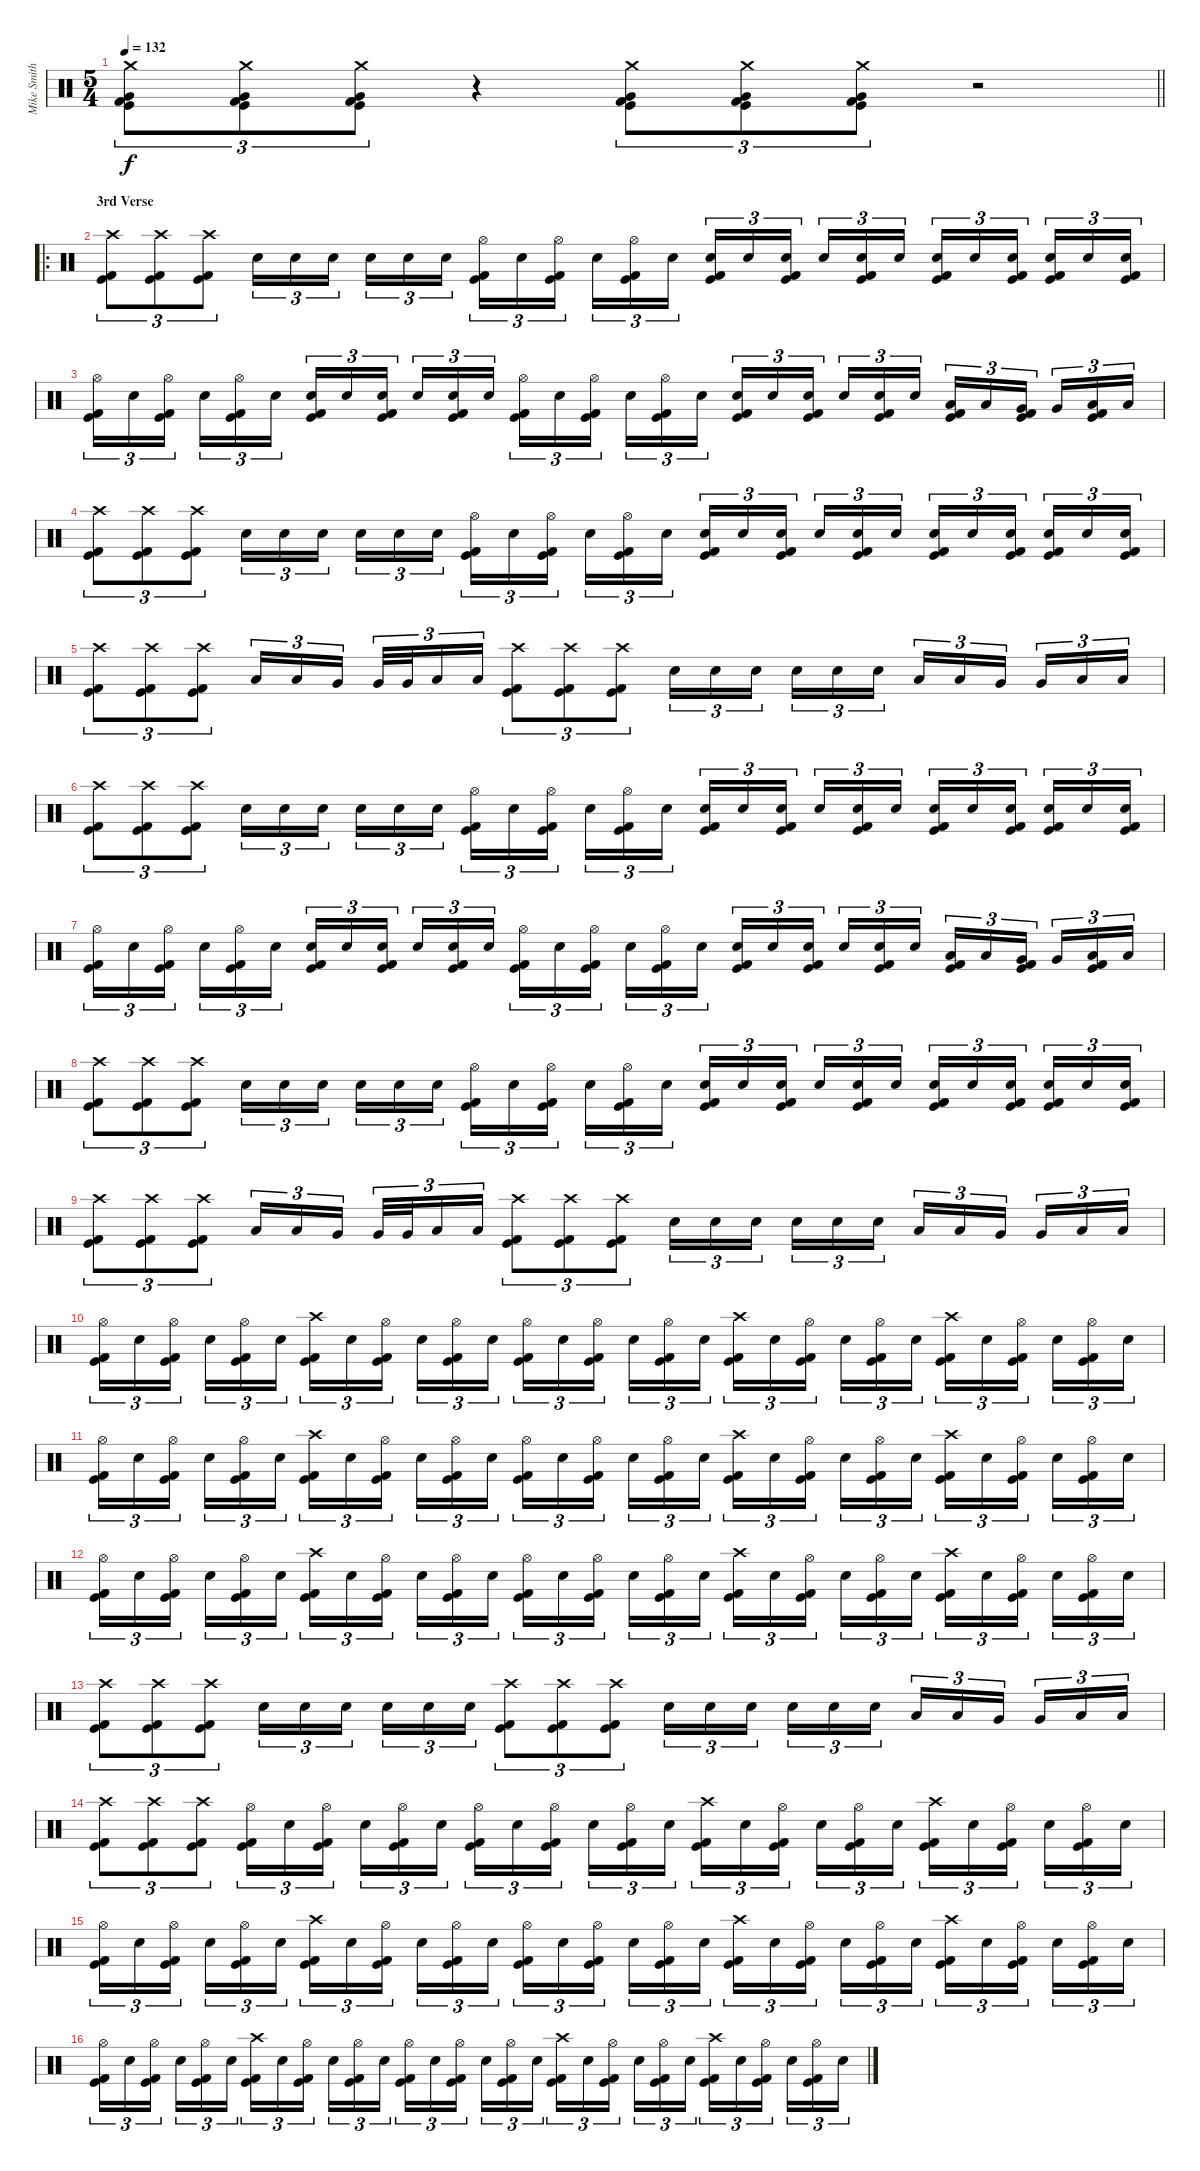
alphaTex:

\track ("Mike Smith" "Mike Smith") {instrument percussion}
\staff {score}
\articulation defaults
\ts (5 4)
\tempo 132
\clef neutral
\barLineRight lightlight
\ks c
("Crash medium (hit)" "Very Low Tom (hit)" "Kick (hit)" "Kick (hit) 2").8{tu (3 2) dy f} ("Crash medium (hit)" "Very Low Tom (hit)" "Kick (hit)" "Kick (hit) 2").8{tu (3 2)} ("Crash medium (hit)" "Very Low Tom (hit)" "Kick (hit)" "Kick (hit) 2").8{tu (3 2)} r.4 ("Crash medium (hit)" "Very Low Tom (hit)" "Kick (hit)" "Kick (hit) 2").8{tu (3 2)} ("Crash medium (hit)" "Very Low Tom (hit)" "Kick (hit)" "Kick (hit) 2").8{tu (3 2)} ("Crash medium (hit)" "Very Low Tom (hit)" "Kick (hit)" "Kick (hit) 2").8{tu (3 2)} r.2 |
\ro
\section ("" "3rd Verse")
("Crash high (hit)" "Kick (hit)" "Kick (hit) 2").8{tu (3 2)} ("Crash high (hit)" "Kick (hit)" "Kick (hit) 2").8{tu (3 2)} ("Crash high (hit)" "Kick (hit)" "Kick (hit) 2").8{tu (3 2)} "Electric Snare (hit)".16{tu (3 2)} "Electric Snare (hit)".16{tu (3 2)} "Electric Snare (hit)".16{tu (3 2) beam splitsecondary} "Electric Snare (hit)".16{tu (3 2)} "Electric Snare (hit)".16{tu (3 2)} "Electric Snare (hit)".16{tu (3 2)} ("Hi-Hat (open)" "Kick (hit)" "Kick (hit) 2").16{tu (3 2)} "Electric Snare (hit)".16{tu (3 2)} ("Hi-Hat (open)" "Kick (hit)" "Kick (hit) 2").16{tu (3 2) beam splitsecondary} "Electric Snare (hit)".16{tu (3 2)} ("Hi-Hat (open)" "Kick (hit)" "Kick (hit) 2").16{tu (3 2)} "Electric Snare (hit)".16{tu (3 2)} ("Electric Snare (hit)" "Kick (hit)" "Kick (hit) 2").16{tu (3 2)} "Electric Snare (hit)".16{tu (3 2)} ("Electric Snare (hit)" "Kick (hit)" "Kick (hit) 2").16{tu (3 2) beam splitsecondary} "Electric Snare (hit)".16{tu (3 2)} ("Electric Snare (hit)" "Kick (hit)" "Kick (hit) 2").16{tu (3 2)} "Electric Snare (hit)".16{tu (3 2)} ("Electric Snare (hit)" "Kick (hit)" "Kick (hit) 2").16{tu (3 2)} "Electric Snare (hit)".16{tu (3 2)} ("Electric Snare (hit)" "Kick (hit)" "Kick (hit) 2").16{tu (3 2) beam splitsecondary} ("Electric Snare (hit)" "Kick (hit)" "Kick (hit) 2").16{tu (3 2)} "Electric Snare (hit)".16{tu (3 2)} ("Electric Snare (hit)" "Kick (hit)" "Kick (hit) 2").16{tu (3 2)} |
("Hi-Hat (open)" "Kick (hit)" "Kick (hit) 2").16{tu (3 2)} "Electric Snare (hit)".16{tu (3 2)} ("Hi-Hat (open)" "Kick (hit)" "Kick (hit) 2").16{tu (3 2) beam splitsecondary} "Electric Snare (hit)".16{tu (3 2)} ("Hi-Hat (open)" "Kick (hit)" "Kick (hit) 2").16{tu (3 2)} "Electric Snare (hit)".16{tu (3 2)} ("Electric Snare (hit)" "Kick (hit)" "Kick (hit) 2").16{tu (3 2)} "Electric Snare (hit)".16{tu (3 2)} ("Electric Snare (hit)" "Kick (hit)" "Kick (hit) 2").16{tu (3 2) beam splitsecondary} "Electric Snare (hit)".16{tu (3 2)} ("Electric Snare (hit)" "Kick (hit)" "Kick (hit) 2").16{tu (3 2)} "Electric Snare (hit)".16{tu (3 2)} ("Hi-Hat (open)" "Kick (hit)" "Kick (hit) 2").16{tu (3 2)} "Electric Snare (hit)".16{tu (3 2)} ("Hi-Hat (open)" "Kick (hit)" "Kick (hit) 2").16{tu (3 2) beam splitsecondary} "Electric Snare (hit)".16{tu (3 2)} ("Hi-Hat (open)" "Kick (hit)" "Kick (hit) 2").16{tu (3 2)} "Electric Snare (hit)".16{tu (3 2)} ("Electric Snare (hit)" "Kick (hit)" "Kick (hit) 2").16{tu (3 2)} "Electric Snare (hit)".16{tu (3 2)} ("Electric Snare (hit)" "Kick (hit)" "Kick (hit) 2").16{tu (3 2) beam splitsecondary} "Electric Snare (hit)".16{tu (3 2)} ("Electric Snare (hit)" "Kick (hit)" "Kick (hit) 2").16{tu (3 2)} "Electric Snare (hit)".16{tu (3 2)} ("Low Tom (hit)" "Kick (hit)" "Kick (hit) 2").16{tu (3 2)} "Low Tom (hit)".16{tu (3 2)} ("Very Low Tom (hit)" "Kick (hit)" "Kick (hit) 2").16{tu (3 2) beam splitsecondary} "Very Low Tom (hit)".16{tu (3 2)} ("Low Floor Tom (hit)" "Kick (hit)" "Kick (hit) 2").16{tu (3 2)} "Low Floor Tom (hit)".16{tu (3 2)} |
("Crash high (hit)" "Kick (hit)" "Kick (hit) 2").8{tu (3 2)} ("Crash high (hit)" "Kick (hit)" "Kick (hit) 2").8{tu (3 2)} ("Crash high (hit)" "Kick (hit)" "Kick (hit) 2").8{tu (3 2)} "Electric Snare (hit)".16{tu (3 2)} "Electric Snare (hit)".16{tu (3 2)} "Electric Snare (hit)".16{tu (3 2) beam splitsecondary} "Electric Snare (hit)".16{tu (3 2)} "Electric Snare (hit)".16{tu (3 2)} "Electric Snare (hit)".16{tu (3 2)} ("Hi-Hat (open)" "Kick (hit)" "Kick (hit) 2").16{tu (3 2)} "Electric Snare (hit)".16{tu (3 2)} ("Hi-Hat (open)" "Kick (hit)" "Kick (hit) 2").16{tu (3 2) beam splitsecondary} "Electric Snare (hit)".16{tu (3 2)} ("Hi-Hat (open)" "Kick (hit)" "Kick (hit) 2").16{tu (3 2)} "Electric Snare (hit)".16{tu (3 2)} ("Electric Snare (hit)" "Kick (hit)" "Kick (hit) 2").16{tu (3 2)} "Electric Snare (hit)".16{tu (3 2)} ("Electric Snare (hit)" "Kick (hit)" "Kick (hit) 2").16{tu (3 2) beam splitsecondary} "Electric Snare (hit)".16{tu (3 2)} ("Electric Snare (hit)" "Kick (hit)" "Kick (hit) 2").16{tu (3 2)} "Electric Snare (hit)".16{tu (3 2)} ("Electric Snare (hit)" "Kick (hit)" "Kick (hit) 2").16{tu (3 2)} "Electric Snare (hit)".16{tu (3 2)} ("Electric Snare (hit)" "Kick (hit)" "Kick (hit) 2").16{tu (3 2) beam splitsecondary} ("Electric Snare (hit)" "Kick (hit)" "Kick (hit) 2").16{tu (3 2)} "Electric Snare (hit)".16{tu (3 2)} ("Electric Snare (hit)" "Kick (hit)" "Kick (hit) 2").16{tu (3 2)} |
("Crash high (hit)" "Kick (hit)" "Kick (hit) 2").8{tu (3 2)} ("Crash high (hit)" "Kick (hit)" "Kick (hit) 2").8{tu (3 2)} ("Crash high (hit)" "Kick (hit)" "Kick (hit) 2").8{tu (3 2)} "Low Tom (hit)".16{tu (3 2)} "Low Tom (hit)".16{tu (3 2)} "Very Low Tom (hit)".16{tu (3 2) beam splitsecondary} "Very Low Tom (hit)".32{tu (3 2)} "Very Low Tom (hit)".32{tu (3 2)} "Low Floor Tom (hit)".16{tu (3 2)} "Low Floor Tom (hit)".16{tu (3 2)} ("Crash high (hit)" "Kick (hit)" "Kick (hit) 2").8{tu (3 2)} ("Crash high (hit)" "Kick (hit)" "Kick (hit) 2").8{tu (3 2)} ("Crash high (hit)" "Kick (hit)" "Kick (hit) 2").8{tu (3 2)} "Electric Snare (hit)".16{tu (3 2)} "Electric Snare (hit)".16{tu (3 2)} "Electric Snare (hit)".16{tu (3 2) beam splitsecondary} "Electric Snare (hit)".16{tu (3 2)} "Electric Snare (hit)".16{tu (3 2)} "Electric Snare (hit)".16{tu (3 2)} "Low Tom (hit)".16{tu (3 2)} "Low Tom (hit)".16{tu (3 2)} "Very Low Tom (hit)".16{tu (3 2) beam splitsecondary} "Very Low Tom (hit)".16{tu (3 2)} "Low Floor Tom (hit)".16{tu (3 2)} "Low Floor Tom (hit)".16{tu (3 2)} |
("Crash high (hit)" "Kick (hit)" "Kick (hit) 2").8{tu (3 2)} ("Crash high (hit)" "Kick (hit)" "Kick (hit) 2").8{tu (3 2)} ("Crash high (hit)" "Kick (hit)" "Kick (hit) 2").8{tu (3 2)} "Electric Snare (hit)".16{tu (3 2)} "Electric Snare (hit)".16{tu (3 2)} "Electric Snare (hit)".16{tu (3 2) beam splitsecondary} "Electric Snare (hit)".16{tu (3 2)} "Electric Snare (hit)".16{tu (3 2)} "Electric Snare (hit)".16{tu (3 2)} ("Hi-Hat (open)" "Kick (hit)" "Kick (hit) 2").16{tu (3 2)} "Electric Snare (hit)".16{tu (3 2)} ("Hi-Hat (open)" "Kick (hit)" "Kick (hit) 2").16{tu (3 2) beam splitsecondary} "Electric Snare (hit)".16{tu (3 2)} ("Hi-Hat (open)" "Kick (hit)" "Kick (hit) 2").16{tu (3 2)} "Electric Snare (hit)".16{tu (3 2)} ("Electric Snare (hit)" "Kick (hit)" "Kick (hit) 2").16{tu (3 2)} "Electric Snare (hit)".16{tu (3 2)} ("Electric Snare (hit)" "Kick (hit)" "Kick (hit) 2").16{tu (3 2) beam splitsecondary} "Electric Snare (hit)".16{tu (3 2)} ("Electric Snare (hit)" "Kick (hit)" "Kick (hit) 2").16{tu (3 2)} "Electric Snare (hit)".16{tu (3 2)} ("Electric Snare (hit)" "Kick (hit)" "Kick (hit) 2").16{tu (3 2)} "Electric Snare (hit)".16{tu (3 2)} ("Electric Snare (hit)" "Kick (hit)" "Kick (hit) 2").16{tu (3 2) beam splitsecondary} ("Electric Snare (hit)" "Kick (hit)" "Kick (hit) 2").16{tu (3 2)} "Electric Snare (hit)".16{tu (3 2)} ("Electric Snare (hit)" "Kick (hit)" "Kick (hit) 2").16{tu (3 2)} |
("Hi-Hat (open)" "Kick (hit)" "Kick (hit) 2").16{tu (3 2)} "Electric Snare (hit)".16{tu (3 2)} ("Hi-Hat (open)" "Kick (hit)" "Kick (hit) 2").16{tu (3 2) beam splitsecondary} "Electric Snare (hit)".16{tu (3 2)} ("Hi-Hat (open)" "Kick (hit)" "Kick (hit) 2").16{tu (3 2)} "Electric Snare (hit)".16{tu (3 2)} ("Electric Snare (hit)" "Kick (hit)" "Kick (hit) 2").16{tu (3 2)} "Electric Snare (hit)".16{tu (3 2)} ("Electric Snare (hit)" "Kick (hit)" "Kick (hit) 2").16{tu (3 2) beam splitsecondary} "Electric Snare (hit)".16{tu (3 2)} ("Electric Snare (hit)" "Kick (hit)" "Kick (hit) 2").16{tu (3 2)} "Electric Snare (hit)".16{tu (3 2)} ("Hi-Hat (open)" "Kick (hit)" "Kick (hit) 2").16{tu (3 2)} "Electric Snare (hit)".16{tu (3 2)} ("Hi-Hat (open)" "Kick (hit)" "Kick (hit) 2").16{tu (3 2) beam splitsecondary} "Electric Snare (hit)".16{tu (3 2)} ("Hi-Hat (open)" "Kick (hit)" "Kick (hit) 2").16{tu (3 2)} "Electric Snare (hit)".16{tu (3 2)} ("Electric Snare (hit)" "Kick (hit)" "Kick (hit) 2").16{tu (3 2)} "Electric Snare (hit)".16{tu (3 2)} ("Electric Snare (hit)" "Kick (hit)" "Kick (hit) 2").16{tu (3 2) beam splitsecondary} "Electric Snare (hit)".16{tu (3 2)} ("Electric Snare (hit)" "Kick (hit)" "Kick (hit) 2").16{tu (3 2)} "Electric Snare (hit)".16{tu (3 2)} ("Low Tom (hit)" "Kick (hit)" "Kick (hit) 2").16{tu (3 2)} "Low Tom (hit)".16{tu (3 2)} ("Very Low Tom (hit)" "Kick (hit)" "Kick (hit) 2").16{tu (3 2) beam splitsecondary} "Very Low Tom (hit)".16{tu (3 2)} ("Low Floor Tom (hit)" "Kick (hit)" "Kick (hit) 2").16{tu (3 2)} "Low Floor Tom (hit)".16{tu (3 2)} |
("Crash high (hit)" "Kick (hit)" "Kick (hit) 2").8{tu (3 2)} ("Crash high (hit)" "Kick (hit)" "Kick (hit) 2").8{tu (3 2)} ("Crash high (hit)" "Kick (hit)" "Kick (hit) 2").8{tu (3 2)} "Electric Snare (hit)".16{tu (3 2)} "Electric Snare (hit)".16{tu (3 2)} "Electric Snare (hit)".16{tu (3 2) beam splitsecondary} "Electric Snare (hit)".16{tu (3 2)} "Electric Snare (hit)".16{tu (3 2)} "Electric Snare (hit)".16{tu (3 2)} ("Hi-Hat (open)" "Kick (hit)" "Kick (hit) 2").16{tu (3 2)} "Electric Snare (hit)".16{tu (3 2)} ("Hi-Hat (open)" "Kick (hit)" "Kick (hit) 2").16{tu (3 2) beam splitsecondary} "Electric Snare (hit)".16{tu (3 2)} ("Hi-Hat (open)" "Kick (hit)" "Kick (hit) 2").16{tu (3 2)} "Electric Snare (hit)".16{tu (3 2)} ("Electric Snare (hit)" "Kick (hit)" "Kick (hit) 2").16{tu (3 2)} "Electric Snare (hit)".16{tu (3 2)} ("Electric Snare (hit)" "Kick (hit)" "Kick (hit) 2").16{tu (3 2) beam splitsecondary} "Electric Snare (hit)".16{tu (3 2)} ("Electric Snare (hit)" "Kick (hit)" "Kick (hit) 2").16{tu (3 2)} "Electric Snare (hit)".16{tu (3 2)} ("Electric Snare (hit)" "Kick (hit)" "Kick (hit) 2").16{tu (3 2)} "Electric Snare (hit)".16{tu (3 2)} ("Electric Snare (hit)" "Kick (hit)" "Kick (hit) 2").16{tu (3 2) beam splitsecondary} ("Electric Snare (hit)" "Kick (hit)" "Kick (hit) 2").16{tu (3 2)} "Electric Snare (hit)".16{tu (3 2)} ("Electric Snare (hit)" "Kick (hit)" "Kick (hit) 2").16{tu (3 2)} |
("Crash high (hit)" "Kick (hit)" "Kick (hit) 2").8{tu (3 2)} ("Crash high (hit)" "Kick (hit)" "Kick (hit) 2").8{tu (3 2)} ("Crash high (hit)" "Kick (hit)" "Kick (hit) 2").8{tu (3 2)} "Low Tom (hit)".16{tu (3 2)} "Low Tom (hit)".16{tu (3 2)} "Very Low Tom (hit)".16{tu (3 2) beam splitsecondary} "Very Low Tom (hit)".32{tu (3 2)} "Very Low Tom (hit)".32{tu (3 2)} "Low Floor Tom (hit)".16{tu (3 2)} "Low Floor Tom (hit)".16{tu (3 2)} ("Crash high (hit)" "Kick (hit)" "Kick (hit) 2").8{tu (3 2)} ("Crash high (hit)" "Kick (hit)" "Kick (hit) 2").8{tu (3 2)} ("Crash high (hit)" "Kick (hit)" "Kick (hit) 2").8{tu (3 2)} "Electric Snare (hit)".16{tu (3 2)} "Electric Snare (hit)".16{tu (3 2)} "Electric Snare (hit)".16{tu (3 2) beam splitsecondary} "Electric Snare (hit)".16{tu (3 2)} "Electric Snare (hit)".16{tu (3 2)} "Electric Snare (hit)".16{tu (3 2)} "Low Tom (hit)".16{tu (3 2)} "Low Tom (hit)".16{tu (3 2)} "Very Low Tom (hit)".16{tu (3 2) beam splitsecondary} "Very Low Tom (hit)".16{tu (3 2)} "Low Floor Tom (hit)".16{tu (3 2)} "Low Floor Tom (hit)".16{tu (3 2)} |
("Hi-Hat (open)" "Kick (hit)" "Kick (hit) 2").16{tu (3 2)} "Electric Snare (hit)".16{tu (3 2)} ("Hi-Hat (open)" "Kick (hit)" "Kick (hit) 2").16{tu (3 2) beam splitsecondary} "Electric Snare (hit)".16{tu (3 2)} ("Hi-Hat (open)" "Kick (hit)" "Kick (hit) 2").16{tu (3 2)} "Electric Snare (hit)".16{tu (3 2)} ("Crash high (hit)" "Kick (hit)" "Kick (hit) 2").16{tu (3 2)} "Electric Snare (hit)".16{tu (3 2)} ("Hi-Hat (open)" "Kick (hit)" "Kick (hit) 2").16{tu (3 2) beam splitsecondary} "Electric Snare (hit)".16{tu (3 2)} ("Hi-Hat (open)" "Kick (hit)" "Kick (hit) 2").16{tu (3 2)} "Electric Snare (hit)".16{tu (3 2)} ("Hi-Hat (open)" "Kick (hit)" "Kick (hit) 2").16{tu (3 2)} "Electric Snare (hit)".16{tu (3 2)} ("Hi-Hat (open)" "Kick (hit)" "Kick (hit) 2").16{tu (3 2) beam splitsecondary} "Electric Snare (hit)".16{tu (3 2)} ("Hi-Hat (open)" "Kick (hit)" "Kick (hit) 2").16{tu (3 2)} "Electric Snare (hit)".16{tu (3 2)} ("Crash high (hit)" "Kick (hit)" "Kick (hit) 2").16{tu (3 2)} "Electric Snare (hit)".16{tu (3 2)} ("Hi-Hat (open)" "Kick (hit)" "Kick (hit) 2").16{tu (3 2) beam splitsecondary} "Electric Snare (hit)".16{tu (3 2)} ("Hi-Hat (open)" "Kick (hit)" "Kick (hit) 2").16{tu (3 2)} "Electric Snare (hit)".16{tu (3 2)} ("Crash high (hit)" "Kick (hit)" "Kick (hit) 2").16{tu (3 2)} "Electric Snare (hit)".16{tu (3 2)} ("Hi-Hat (open)" "Kick (hit)" "Kick (hit) 2").16{tu (3 2) beam splitsecondary} "Electric Snare (hit)".16{tu (3 2)} ("Hi-Hat (open)" "Kick (hit)" "Kick (hit) 2").16{tu (3 2)} "Electric Snare (hit)".16{tu (3 2)} |
("Hi-Hat (open)" "Kick (hit)" "Kick (hit) 2").16{tu (3 2)} "Electric Snare (hit)".16{tu (3 2)} ("Hi-Hat (open)" "Kick (hit)" "Kick (hit) 2").16{tu (3 2) beam splitsecondary} "Electric Snare (hit)".16{tu (3 2)} ("Hi-Hat (open)" "Kick (hit)" "Kick (hit) 2").16{tu (3 2)} "Electric Snare (hit)".16{tu (3 2)} ("Crash high (hit)" "Kick (hit)" "Kick (hit) 2").16{tu (3 2)} "Electric Snare (hit)".16{tu (3 2)} ("Hi-Hat (open)" "Kick (hit)" "Kick (hit) 2").16{tu (3 2) beam splitsecondary} "Electric Snare (hit)".16{tu (3 2)} ("Hi-Hat (open)" "Kick (hit)" "Kick (hit) 2").16{tu (3 2)} "Electric Snare (hit)".16{tu (3 2)} ("Hi-Hat (open)" "Kick (hit)" "Kick (hit) 2").16{tu (3 2)} "Electric Snare (hit)".16{tu (3 2)} ("Hi-Hat (open)" "Kick (hit)" "Kick (hit) 2").16{tu (3 2) beam splitsecondary} "Electric Snare (hit)".16{tu (3 2)} ("Hi-Hat (open)" "Kick (hit)" "Kick (hit) 2").16{tu (3 2)} "Electric Snare (hit)".16{tu (3 2)} ("Crash high (hit)" "Kick (hit)" "Kick (hit) 2").16{tu (3 2)} "Electric Snare (hit)".16{tu (3 2)} ("Hi-Hat (open)" "Kick (hit)" "Kick (hit) 2").16{tu (3 2) beam splitsecondary} "Electric Snare (hit)".16{tu (3 2)} ("Hi-Hat (open)" "Kick (hit)" "Kick (hit) 2").16{tu (3 2)} "Electric Snare (hit)".16{tu (3 2)} ("Crash high (hit)" "Kick (hit)" "Kick (hit) 2").16{tu (3 2)} "Electric Snare (hit)".16{tu (3 2)} ("Hi-Hat (open)" "Kick (hit)" "Kick (hit) 2").16{tu (3 2) beam splitsecondary} "Electric Snare (hit)".16{tu (3 2)} ("Hi-Hat (open)" "Kick (hit)" "Kick (hit) 2").16{tu (3 2)} "Electric Snare (hit)".16{tu (3 2)} |
("Hi-Hat (open)" "Kick (hit)" "Kick (hit) 2").16{tu (3 2)} "Electric Snare (hit)".16{tu (3 2)} ("Hi-Hat (open)" "Kick (hit)" "Kick (hit) 2").16{tu (3 2) beam splitsecondary} "Electric Snare (hit)".16{tu (3 2)} ("Hi-Hat (open)" "Kick (hit)" "Kick (hit) 2").16{tu (3 2)} "Electric Snare (hit)".16{tu (3 2)} ("Crash high (hit)" "Kick (hit)" "Kick (hit) 2").16{tu (3 2)} "Electric Snare (hit)".16{tu (3 2)} ("Hi-Hat (open)" "Kick (hit)" "Kick (hit) 2").16{tu (3 2) beam splitsecondary} "Electric Snare (hit)".16{tu (3 2)} ("Hi-Hat (open)" "Kick (hit)" "Kick (hit) 2").16{tu (3 2)} "Electric Snare (hit)".16{tu (3 2)} ("Hi-Hat (open)" "Kick (hit)" "Kick (hit) 2").16{tu (3 2)} "Electric Snare (hit)".16{tu (3 2)} ("Hi-Hat (open)" "Kick (hit)" "Kick (hit) 2").16{tu (3 2) beam splitsecondary} "Electric Snare (hit)".16{tu (3 2)} ("Hi-Hat (open)" "Kick (hit)" "Kick (hit) 2").16{tu (3 2)} "Electric Snare (hit)".16{tu (3 2)} ("Crash high (hit)" "Kick (hit)" "Kick (hit) 2").16{tu (3 2)} "Electric Snare (hit)".16{tu (3 2)} ("Hi-Hat (open)" "Kick (hit)" "Kick (hit) 2").16{tu (3 2) beam splitsecondary} "Electric Snare (hit)".16{tu (3 2)} ("Hi-Hat (open)" "Kick (hit)" "Kick (hit) 2").16{tu (3 2)} "Electric Snare (hit)".16{tu (3 2)} ("Crash high (hit)" "Kick (hit)" "Kick (hit) 2").16{tu (3 2)} "Electric Snare (hit)".16{tu (3 2)} ("Hi-Hat (open)" "Kick (hit)" "Kick (hit) 2").16{tu (3 2) beam splitsecondary} "Electric Snare (hit)".16{tu (3 2)} ("Hi-Hat (open)" "Kick (hit)" "Kick (hit) 2").16{tu (3 2)} "Electric Snare (hit)".16{tu (3 2)} |
("Crash high (hit)" "Kick (hit)" "Kick (hit) 2").8{tu (3 2)} ("Crash high (hit)" "Kick (hit)" "Kick (hit) 2").8{tu (3 2)} ("Crash high (hit)" "Kick (hit)" "Kick (hit) 2").8{tu (3 2)} "Electric Snare (hit)".16{tu (3 2)} "Electric Snare (hit)".16{tu (3 2)} "Electric Snare (hit)".16{tu (3 2) beam splitsecondary} "Electric Snare (hit)".16{tu (3 2)} "Electric Snare (hit)".16{tu (3 2)} "Electric Snare (hit)".16{tu (3 2)} ("Crash high (hit)" "Kick (hit)" "Kick (hit) 2").8{tu (3 2)} ("Crash high (hit)" "Kick (hit)" "Kick (hit) 2").8{tu (3 2)} ("Crash high (hit)" "Kick (hit)" "Kick (hit) 2").8{tu (3 2)} "Electric Snare (hit)".16{tu (3 2)} "Electric Snare (hit)".16{tu (3 2)} "Electric Snare (hit)".16{tu (3 2) beam splitsecondary} "Electric Snare (hit)".16{tu (3 2)} "Electric Snare (hit)".16{tu (3 2)} "Electric Snare (hit)".16{tu (3 2)} "Low Tom (hit)".16{tu (3 2)} "Low Tom (hit)".16{tu (3 2)} "Very Low Tom (hit)".16{tu (3 2) beam splitsecondary} "Very Low Tom (hit)".16{tu (3 2)} "Low Floor Tom (hit)".16{tu (3 2)} "Low Floor Tom (hit)".16{tu (3 2)} |
("Crash high (hit)" "Kick (hit)" "Kick (hit) 2").8{tu (3 2)} ("Crash high (hit)" "Kick (hit)" "Kick (hit) 2").8{tu (3 2)} ("Crash high (hit)" "Kick (hit)" "Kick (hit) 2").8{tu (3 2)} ("Hi-Hat (open)" "Kick (hit)" "Kick (hit) 2").16{tu (3 2)} "Electric Snare (hit)".16{tu (3 2)} ("Hi-Hat (open)" "Kick (hit)" "Kick (hit) 2").16{tu (3 2) beam splitsecondary} "Electric Snare (hit)".16{tu (3 2)} ("Hi-Hat (open)" "Kick (hit)" "Kick (hit) 2").16{tu (3 2)} "Electric Snare (hit)".16{tu (3 2)} ("Hi-Hat (open)" "Kick (hit)" "Kick (hit) 2").16{tu (3 2)} "Electric Snare (hit)".16{tu (3 2)} ("Hi-Hat (open)" "Kick (hit)" "Kick (hit) 2").16{tu (3 2) beam splitsecondary} "Electric Snare (hit)".16{tu (3 2)} ("Hi-Hat (open)" "Kick (hit)" "Kick (hit) 2").16{tu (3 2)} "Electric Snare (hit)".16{tu (3 2)} ("Crash high (hit)" "Kick (hit)" "Kick (hit) 2").16{tu (3 2)} "Electric Snare (hit)".16{tu (3 2)} ("Hi-Hat (open)" "Kick (hit)" "Kick (hit) 2").16{tu (3 2) beam splitsecondary} "Electric Snare (hit)".16{tu (3 2)} ("Hi-Hat (open)" "Kick (hit)" "Kick (hit) 2").16{tu (3 2)} "Electric Snare (hit)".16{tu (3 2)} ("Crash high (hit)" "Kick (hit)" "Kick (hit) 2").16{tu (3 2)} "Electric Snare (hit)".16{tu (3 2)} ("Hi-Hat (open)" "Kick (hit)" "Kick (hit) 2").16{tu (3 2) beam splitsecondary} "Electric Snare (hit)".16{tu (3 2)} ("Hi-Hat (open)" "Kick (hit)" "Kick (hit) 2").16{tu (3 2)} "Electric Snare (hit)".16{tu (3 2)} |
("Hi-Hat (open)" "Kick (hit)" "Kick (hit) 2").16{tu (3 2)} "Electric Snare (hit)".16{tu (3 2)} ("Hi-Hat (open)" "Kick (hit)" "Kick (hit) 2").16{tu (3 2) beam splitsecondary} "Electric Snare (hit)".16{tu (3 2)} ("Hi-Hat (open)" "Kick (hit)" "Kick (hit) 2").16{tu (3 2)} "Electric Snare (hit)".16{tu (3 2)} ("Crash high (hit)" "Kick (hit)" "Kick (hit) 2").16{tu (3 2)} "Electric Snare (hit)".16{tu (3 2)} ("Hi-Hat (open)" "Kick (hit)" "Kick (hit) 2").16{tu (3 2) beam splitsecondary} "Electric Snare (hit)".16{tu (3 2)} ("Hi-Hat (open)" "Kick (hit)" "Kick (hit) 2").16{tu (3 2)} "Electric Snare (hit)".16{tu (3 2)} ("Hi-Hat (open)" "Kick (hit)" "Kick (hit) 2").16{tu (3 2)} "Electric Snare (hit)".16{tu (3 2)} ("Hi-Hat (open)" "Kick (hit)" "Kick (hit) 2").16{tu (3 2) beam splitsecondary} "Electric Snare (hit)".16{tu (3 2)} ("Hi-Hat (open)" "Kick (hit)" "Kick (hit) 2").16{tu (3 2)} "Electric Snare (hit)".16{tu (3 2)} ("Crash high (hit)" "Kick (hit)" "Kick (hit) 2").16{tu (3 2)} "Electric Snare (hit)".16{tu (3 2)} ("Hi-Hat (open)" "Kick (hit)" "Kick (hit) 2").16{tu (3 2) beam splitsecondary} "Electric Snare (hit)".16{tu (3 2)} ("Hi-Hat (open)" "Kick (hit)" "Kick (hit) 2").16{tu (3 2)} "Electric Snare (hit)".16{tu (3 2)} ("Crash high (hit)" "Kick (hit)" "Kick (hit) 2").16{tu (3 2)} "Electric Snare (hit)".16{tu (3 2)} ("Hi-Hat (open)" "Kick (hit)" "Kick (hit) 2").16{tu (3 2) beam splitsecondary} "Electric Snare (hit)".16{tu (3 2)} ("Hi-Hat (open)" "Kick (hit)" "Kick (hit) 2").16{tu (3 2)} "Electric Snare (hit)".16{tu (3 2)} |
("Hi-Hat (open)" "Kick (hit)" "Kick (hit) 2").16{tu (3 2)} "Electric Snare (hit)".16{tu (3 2)} ("Hi-Hat (open)" "Kick (hit)" "Kick (hit) 2").16{tu (3 2) beam splitsecondary} "Electric Snare (hit)".16{tu (3 2)} ("Hi-Hat (open)" "Kick (hit)" "Kick (hit) 2").16{tu (3 2)} "Electric Snare (hit)".16{tu (3 2)} ("Crash high (hit)" "Kick (hit)" "Kick (hit) 2").16{tu (3 2)} "Electric Snare (hit)".16{tu (3 2)} ("Hi-Hat (open)" "Kick (hit)" "Kick (hit) 2").16{tu (3 2) beam splitsecondary} "Electric Snare (hit)".16{tu (3 2)} ("Hi-Hat (open)" "Kick (hit)" "Kick (hit) 2").16{tu (3 2)} "Electric Snare (hit)".16{tu (3 2)} ("Hi-Hat (open)" "Kick (hit)" "Kick (hit) 2").16{tu (3 2)} "Electric Snare (hit)".16{tu (3 2)} ("Hi-Hat (open)" "Kick (hit)" "Kick (hit) 2").16{tu (3 2) beam splitsecondary} "Electric Snare (hit)".16{tu (3 2)} ("Hi-Hat (open)" "Kick (hit)" "Kick (hit) 2").16{tu (3 2)} "Electric Snare (hit)".16{tu (3 2)} ("Crash high (hit)" "Kick (hit)" "Kick (hit) 2").16{tu (3 2)} "Electric Snare (hit)".16{tu (3 2)} ("Hi-Hat (open)" "Kick (hit)" "Kick (hit) 2").16{tu (3 2) beam splitsecondary} "Electric Snare (hit)".16{tu (3 2)} ("Hi-Hat (open)" "Kick (hit)" "Kick (hit) 2").16{tu (3 2)} "Electric Snare (hit)".16{tu (3 2)} ("Crash high (hit)" "Kick (hit)" "Kick (hit) 2").16{tu (3 2)} "Electric Snare (hit)".16{tu (3 2)} ("Hi-Hat (open)" "Kick (hit)" "Kick (hit) 2").16{tu (3 2) beam splitsecondary} "Electric Snare (hit)".16{tu (3 2)} ("Hi-Hat (open)" "Kick (hit)" "Kick (hit) 2").16{tu (3 2)} "Electric Snare (hit)".16{tu (3 2)}
